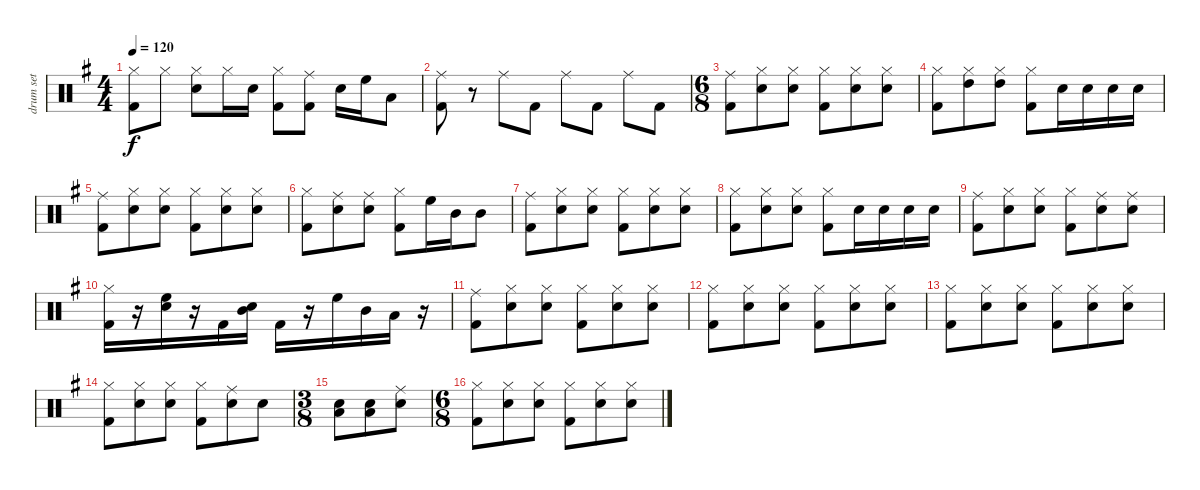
\track ("drum set" "drum set") {instrument percussion}
\staff {score}
\articulation defaults
\ts (4 4)
\tempo 120
\clef neutral
\ks g
("Hi-Hat (closed)" "Kick (hit) 2").8{dy f} "Hi-Hat (closed)".8 ("Hi-Hat (closed)" "Snare (hit) 2").8 "Hi-Hat (closed)".16 "Snare (hit) 2".16 ("Hi-Hat (closed)" "Kick (hit) 2").8 ("Ride (middle)" "Kick (hit) 2").8 "Snare (hit) 2".16 "High Floor Tom (hit)".16 "Low Tom (hit)".8 |
("Ride (middle)" "Kick (hit) 2").8 r.8 "Ride (middle)".8 "Kick (hit) 2".8 "Ride (middle)".8 "Kick (hit) 2".8 "Ride (middle)".8 "Kick (hit) 2".8 |
\ts (6 8)
("Ride (middle)" "Kick (hit) 2").8 ("Hi-Hat (closed)" "Snare (hit) 2").8 ("Hi-Hat (closed)" "Snare (hit) 2").8 ("Hi-Hat (closed)" "Kick (hit) 2").8 ("Hi-Hat (closed)" "Snare (hit) 2").8 ("Hi-Hat (closed)" "Snare (hit) 2").8 |
("Hi-Hat (closed)" "Kick (hit) 2").8 ("Hi-Hat (closed)" "High Tom (hit)").8 ("Hi-Hat (closed)" "High Tom (hit)").8 ("Hi-Hat (closed)" "Kick (hit) 2").8 "Snare (hit) 2".16 "Snare (hit) 2".16 "Snare (hit) 2".16 "Snare (hit) 2".16 |
("Ride (middle)" "Kick (hit) 2").8 ("Hi-Hat (closed)" "Snare (hit) 2").8 ("Hi-Hat (closed)" "Snare (hit) 2").8 ("Hi-Hat (closed)" "Kick (hit) 2").8 ("Hi-Hat (closed)" "Snare (hit) 2").8 ("Hi-Hat (closed)" "Snare (hit) 2").8 |
("Hi-Hat (closed)" "Kick (hit) 2").8 ("Ride (middle)" "Snare (hit) 2").8 ("Ride (middle)" "Snare (hit) 2").8 ("Hi-Hat (closed)" "Kick (hit) 2").8 "High Floor Tom (hit)".16 "Mid Tom (hit)".16 "Mid Tom (hit)".8 |
("Ride (middle)" "Kick (hit) 2").8 ("Hi-Hat (closed)" "Snare (hit) 2").8 ("Hi-Hat (closed)" "Snare (hit) 2").8 ("Hi-Hat (closed)" "Kick (hit) 2").8 ("Hi-Hat (closed)" "Snare (hit) 2").8 ("Hi-Hat (closed)" "Snare (hit) 2").8 |
("Hi-Hat (closed)" "Kick (hit) 2").8 ("Hi-Hat (closed)" "Snare (hit) 2").8 ("Hi-Hat (closed)" "Snare (hit) 2").8 ("Hi-Hat (closed)" "Kick (hit) 2").8 "Snare (hit) 2".16 "Snare (hit) 2".16 "Snare (hit) 2".16 "Snare (hit) 2".16 |
("Ride (middle)" "Kick (hit) 2").8 ("Hi-Hat (closed)" "Snare (hit) 2").8 ("Hi-Hat (closed)" "Snare (hit) 2").8 ("Hi-Hat (closed)" "Kick (hit) 2").8 ("Ride (middle)" "Snare (hit) 2").8 ("Ride (middle)" "Snare (hit) 2").8 |
("Hi-Hat (closed)" "Kick (hit) 2").16 r.16 ("High Floor Tom (hit)" "Snare (hit) 2").16 r.16 "Kick (hit) 2".16 ("Snare (hit) 2" "Mid Tom (hit)").16 "Kick (hit) 2".16 r.16 "High Floor Tom (hit)".16 "Mid Tom (hit)".16 "Low Tom (hit)".16 r.16 |
("Ride (middle)" "Kick (hit) 2").8 ("Hi-Hat (closed)" "Snare (hit) 2").8 ("Hi-Hat (closed)" "Snare (hit) 2").8 ("Hi-Hat (closed)" "Kick (hit) 2").8 ("Hi-Hat (closed)" "Snare (hit) 2").8 ("Hi-Hat (closed)" "Snare (hit) 2").8 |
("Hi-Hat (closed)" "Kick (hit) 2").8 ("Hi-Hat (closed)" "Snare (hit) 2").8 ("Hi-Hat (closed)" "Snare (hit) 2").8 ("Hi-Hat (closed)" "Kick (hit) 2").8 ("Hi-Hat (closed)" "Snare (hit) 2").8 ("Hi-Hat (closed)" "Snare (hit) 2").8 |
("Hi-Hat (closed)" "Kick (hit) 2").8 ("Hi-Hat (closed)" "Snare (hit) 2").8 ("Hi-Hat (closed)" "Snare (hit) 2").8 ("Hi-Hat (closed)" "Kick (hit) 2").8 ("Hi-Hat (closed)" "Snare (hit) 2").8 ("Hi-Hat (closed)" "Snare (hit) 2").8 |
("Hi-Hat (closed)" "Kick (hit) 2").8 ("Hi-Hat (closed)" "Snare (hit) 2").8 ("Hi-Hat (closed)" "Snare (hit) 2").8 ("Hi-Hat (closed)" "Kick (hit) 2").8 ("Ride (middle)" "Snare (hit) 2").8 "Snare (hit) 2".8 |
\ts (3 8)
("Snare (hit) 2" "Low Tom (hit)").8 ("Snare (hit) 2" "Low Tom (hit)").8 ("Snare (hit) 2" "Ride (middle)").8 |
\ts (6 8)
("Hi-Hat (closed)" "Kick (hit) 2").8 ("Hi-Hat (closed)" "Snare (hit) 2").8 ("Hi-Hat (closed)" "Snare (hit) 2").8 ("Hi-Hat (closed)" "Kick (hit) 2").8 ("Hi-Hat (closed)" "Snare (hit) 2").8 ("Hi-Hat (closed)" "Snare (hit) 2").8
